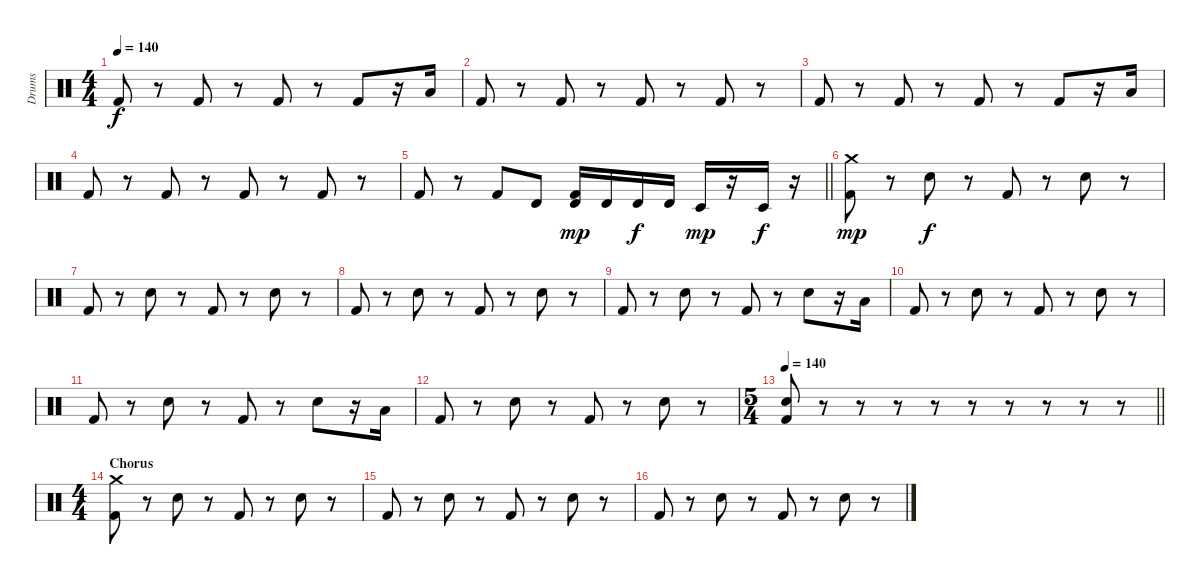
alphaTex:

\track ("Drums" "Drums") {instrument percussion}
\staff {score}
\articulation defaults
\ts (4 4)
\tempo 140
\clef neutral
\ks c "Kick (hit) 2".8{dy f}
r.8 "Kick (hit) 2".8 r.8 "Kick (hit) 2".8 r.8 "Kick (hit) 2".8 r.16 "Low Floor Tom (hit)".16 |
"Kick (hit) 2".8 r.8 "Kick (hit) 2".8 r.8 "Kick (hit) 2".8 r.8 "Kick (hit) 2".8 r.8 |
"Kick (hit) 2".8 r.8 "Kick (hit) 2".8 r.8 "Kick (hit) 2".8 r.8 "Kick (hit) 2".8 r.16 "Low Floor Tom (hit)".16 |
"Kick (hit) 2".8 r.8 "Kick (hit) 2".8 r.8 "Kick (hit) 2".8 r.8 "Kick (hit) 2".8 r.8 |
\barLineRight lightlight "Kick (hit) 2".8
r.8 "Kick (hit) 2".8 "Timbale high (hit)".8 ("Timbale high (hit)" "Kick (hit) 2").16{dy mp} "Timbale high (hit)".16 "Timbale high (hit)".16{dy f} "Timbale high (hit)".16 "Timbale low (hit)".16{dy mp} r.16 "Timbale low (hit)".16{dy f} r.16 |
("Crash medium (hit)" "Kick (hit) 2").8{dy mp} r.8 "Snare (hit) 2".8{dy f} r.8 "Kick (hit) 2".8 r.8 "Snare (hit) 2".8 r.8 |
"Kick (hit) 2".8 r.8 "Snare (hit) 2".8 r.8 "Kick (hit) 2".8 r.8 "Snare (hit) 2".8 r.8 |
"Kick (hit) 2".8 r.8 "Snare (hit) 2".8 r.8 "Kick (hit) 2".8 r.8 "Snare (hit) 2".8 r.8 |
"Kick (hit) 2".8 r.8 "Snare (hit) 2".8 r.8 "Kick (hit) 2".8 r.8 "Snare (hit) 2".8 r.16 "Low Floor Tom (hit)".16 |
"Kick (hit) 2".8 r.8 "Snare (hit) 2".8 r.8 "Kick (hit) 2".8 r.8 "Snare (hit) 2".8 r.8 |
"Kick (hit) 2".8 r.8 "Snare (hit) 2".8 r.8 "Kick (hit) 2".8 r.8 "Snare (hit) 2".8 r.16 "Low Floor Tom (hit)".16 |
"Kick (hit) 2".8 r.8 "Snare (hit) 2".8 r.8 "Kick (hit) 2".8 r.8 "Snare (hit) 2".8 r.8 |
\ts (5 4)
\tempo 140
\barLineRight lightlight
("Snare (hit) 2" "Kick (hit) 2").8 r.8 r.8 r.8 r.8 r.8 r.8 r.8 r.8 r.8 |
\ts (4 4)
\section ("" "Chorus")
("Crash medium (hit)" "Kick (hit) 2").8 r.8 "Snare (hit) 2".8 r.8 "Kick (hit) 2".8 r.8 "Snare (hit) 2".8 r.8 |
"Kick (hit) 2".8 r.8 "Snare (hit) 2".8 r.8 "Kick (hit) 2".8 r.8 "Snare (hit) 2".8 r.8 |
"Kick (hit) 2".8 r.8 "Snare (hit) 2".8 r.8 "Kick (hit) 2".8 r.8 "Snare (hit) 2".8 r.8
